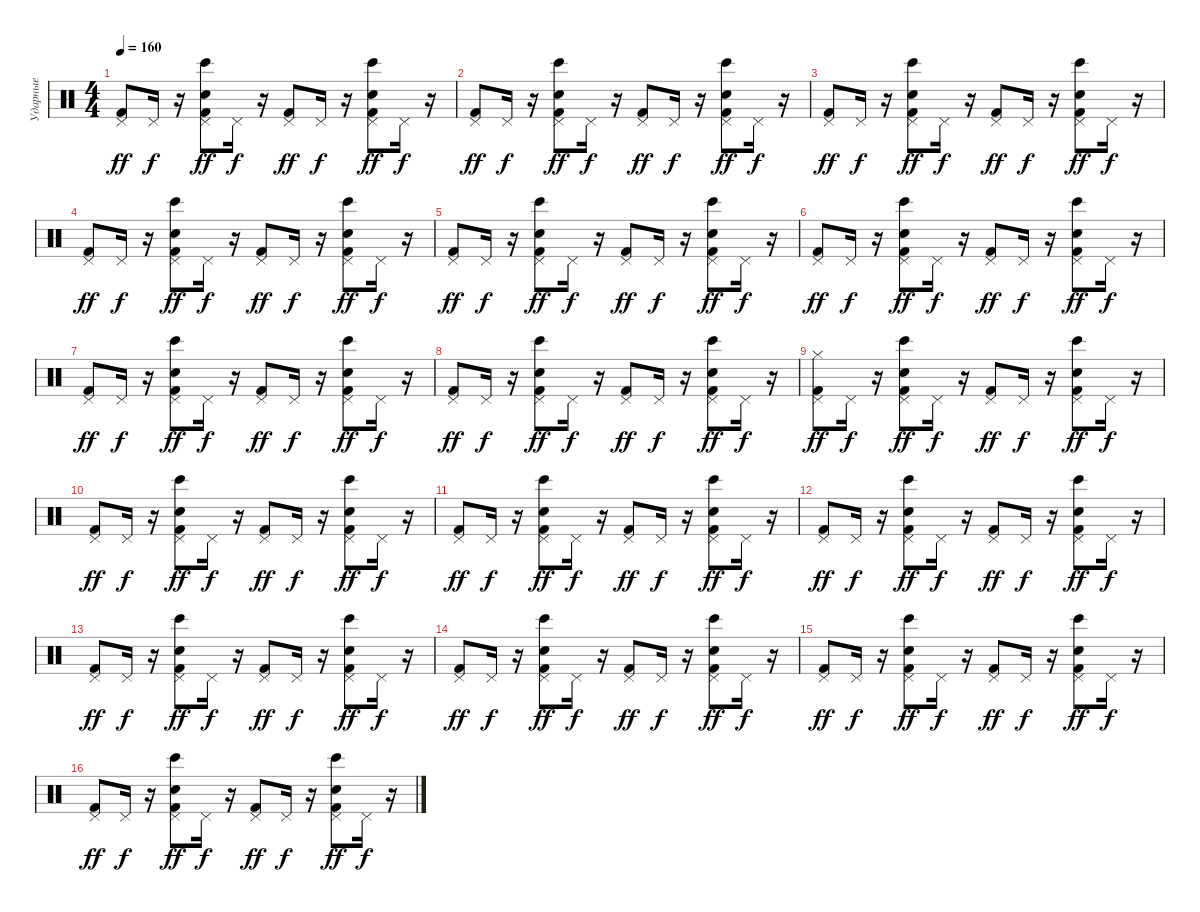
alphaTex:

\track ("Ударные" "Ударные") {instrument percussion}
\staff {score}
\articulation defaults
\ts (4 4)
\tempo 160
\clef neutral
\ks c
("Kick (hit) 2" "Pedal Hi-Hat (hit)").8{dy ff} "Pedal Hi-Hat (hit)".16{dy f} r.16 ("Kick (hit) 2" "Snare (hit) 2" "Pedal Hi-Hat (hit)" "Bongo High (hit)").8{dy ff} "Pedal Hi-Hat (hit)".16{dy f} r.16 ("Kick (hit) 2" "Pedal Hi-Hat (hit)").8{dy ff} "Pedal Hi-Hat (hit)".16{dy f} r.16 ("Snare (hit) 2" "Kick (hit) 2" "Pedal Hi-Hat (hit)" "Bongo High (hit)").8{dy ff} "Pedal Hi-Hat (hit)".16{dy f} r.16 |
("Kick (hit) 2" "Pedal Hi-Hat (hit)").8{dy ff} "Pedal Hi-Hat (hit)".16{dy f} r.16 ("Kick (hit) 2" "Snare (hit) 2" "Pedal Hi-Hat (hit)" "Bongo High (hit)").8{dy ff} "Pedal Hi-Hat (hit)".16{dy f} r.16 ("Kick (hit) 2" "Pedal Hi-Hat (hit)").8{dy ff} "Pedal Hi-Hat (hit)".16{dy f} r.16 ("Snare (hit) 2" "Kick (hit) 2" "Pedal Hi-Hat (hit)" "Bongo High (hit)").8{dy ff} "Pedal Hi-Hat (hit)".16{dy f} r.16 |
("Kick (hit) 2" "Pedal Hi-Hat (hit)").8{dy ff} "Pedal Hi-Hat (hit)".16{dy f} r.16 ("Kick (hit) 2" "Snare (hit) 2" "Pedal Hi-Hat (hit)" "Bongo High (hit)").8{dy ff} "Pedal Hi-Hat (hit)".16{dy f} r.16 ("Kick (hit) 2" "Pedal Hi-Hat (hit)").8{dy ff} "Pedal Hi-Hat (hit)".16{dy f} r.16 ("Snare (hit) 2" "Kick (hit) 2" "Pedal Hi-Hat (hit)" "Bongo High (hit)").8{dy ff} "Pedal Hi-Hat (hit)".16{dy f} r.16 |
("Kick (hit) 2" "Pedal Hi-Hat (hit)").8{dy ff} "Pedal Hi-Hat (hit)".16{dy f} r.16 ("Snare (hit) 2" "Kick (hit) 2" "Pedal Hi-Hat (hit)" "Bongo High (hit)").8{dy ff} "Pedal Hi-Hat (hit)".16{dy f} r.16 ("Kick (hit) 2" "Pedal Hi-Hat (hit)").8{dy ff} "Pedal Hi-Hat (hit)".16{dy f} r.16 ("Kick (hit) 2" "Snare (hit) 2" "Pedal Hi-Hat (hit)" "Bongo High (hit)").8{dy ff} "Pedal Hi-Hat (hit)".16{dy f} r.16 |
("Kick (hit) 2" "Pedal Hi-Hat (hit)").8{dy ff} "Pedal Hi-Hat (hit)".16{dy f} r.16 ("Kick (hit) 2" "Snare (hit) 2" "Pedal Hi-Hat (hit)" "Bongo High (hit)").8{dy ff} "Pedal Hi-Hat (hit)".16{dy f} r.16 ("Kick (hit) 2" "Pedal Hi-Hat (hit)").8{dy ff} "Pedal Hi-Hat (hit)".16{dy f} r.16 ("Kick (hit) 2" "Snare (hit) 2" "Pedal Hi-Hat (hit)" "Bongo High (hit)").8{dy ff} "Pedal Hi-Hat (hit)".16{dy f} r.16 |
("Kick (hit) 2" "Pedal Hi-Hat (hit)").8{dy ff} "Pedal Hi-Hat (hit)".16{dy f} r.16 ("Kick (hit) 2" "Snare (hit) 2" "Pedal Hi-Hat (hit)" "Bongo High (hit)").8{dy ff} "Pedal Hi-Hat (hit)".16{dy f} r.16 ("Kick (hit) 2" "Pedal Hi-Hat (hit)").8{dy ff} "Pedal Hi-Hat (hit)".16{dy f} r.16 ("Snare (hit) 2" "Kick (hit) 2" "Pedal Hi-Hat (hit)" "Bongo High (hit)").8{dy ff} "Pedal Hi-Hat (hit)".16{dy f} r.16 |
("Kick (hit) 2" "Pedal Hi-Hat (hit)").8{dy ff} "Pedal Hi-Hat (hit)".16{dy f} r.16 ("Snare (hit) 2" "Kick (hit) 2" "Pedal Hi-Hat (hit)" "Bongo High (hit)").8{dy ff} "Pedal Hi-Hat (hit)".16{dy f} r.16 ("Kick (hit) 2" "Pedal Hi-Hat (hit)").8{dy ff} "Pedal Hi-Hat (hit)".16{dy f} r.16 ("Kick (hit) 2" "Snare (hit) 2" "Pedal Hi-Hat (hit)" "Bongo High (hit)").8{dy ff} "Pedal Hi-Hat (hit)".16{dy f} r.16 |
("Kick (hit) 2" "Pedal Hi-Hat (hit)").8{dy ff} "Pedal Hi-Hat (hit)".16{dy f} r.16 ("Kick (hit) 2" "Snare (hit) 2" "Pedal Hi-Hat (hit)" "Bongo High (hit)").8{dy ff} "Pedal Hi-Hat (hit)".16{dy f} r.16 ("Kick (hit) 2" "Pedal Hi-Hat (hit)").8{dy ff} "Pedal Hi-Hat (hit)".16{dy f} r.16 ("Kick (hit) 2" "Snare (hit) 2" "Pedal Hi-Hat (hit)" "Bongo High (hit)").8{dy ff} "Pedal Hi-Hat (hit)".16{dy f} r.16 |
("Kick (hit) 2" "Pedal Hi-Hat (hit)" "Hi-Hat (closed)").8{dy ff} "Pedal Hi-Hat (hit)".16{dy f} r.16 ("Kick (hit) 2" "Snare (hit) 2" "Pedal Hi-Hat (hit)" "Bongo High (hit)").8{dy ff} "Pedal Hi-Hat (hit)".16{dy f} r.16 ("Kick (hit) 2" "Pedal Hi-Hat (hit)").8{dy ff} "Pedal Hi-Hat (hit)".16{dy f} r.16 ("Snare (hit) 2" "Kick (hit) 2" "Pedal Hi-Hat (hit)" "Bongo High (hit)").8{dy ff} "Pedal Hi-Hat (hit)".16{dy f} r.16 |
("Kick (hit) 2" "Pedal Hi-Hat (hit)").8{dy ff} "Pedal Hi-Hat (hit)".16{dy f} r.16 ("Kick (hit) 2" "Snare (hit) 2" "Pedal Hi-Hat (hit)" "Bongo High (hit)").8{dy ff} "Pedal Hi-Hat (hit)".16{dy f} r.16 ("Kick (hit) 2" "Pedal Hi-Hat (hit)").8{dy ff} "Pedal Hi-Hat (hit)".16{dy f} r.16 ("Snare (hit) 2" "Kick (hit) 2" "Pedal Hi-Hat (hit)" "Bongo High (hit)").8{dy ff} "Pedal Hi-Hat (hit)".16{dy f} r.16 |
("Kick (hit) 2" "Pedal Hi-Hat (hit)").8{dy ff} "Pedal Hi-Hat (hit)".16{dy f} r.16 ("Kick (hit) 2" "Snare (hit) 2" "Pedal Hi-Hat (hit)" "Bongo High (hit)").8{dy ff} "Pedal Hi-Hat (hit)".16{dy f} r.16 ("Kick (hit) 2" "Pedal Hi-Hat (hit)").8{dy ff} "Pedal Hi-Hat (hit)".16{dy f} r.16 ("Snare (hit) 2" "Kick (hit) 2" "Pedal Hi-Hat (hit)" "Bongo High (hit)").8{dy ff} "Pedal Hi-Hat (hit)".16{dy f} r.16 |
("Kick (hit) 2" "Pedal Hi-Hat (hit)").8{dy ff} "Pedal Hi-Hat (hit)".16{dy f} r.16 ("Snare (hit) 2" "Kick (hit) 2" "Pedal Hi-Hat (hit)" "Bongo High (hit)").8{dy ff} "Pedal Hi-Hat (hit)".16{dy f} r.16 ("Kick (hit) 2" "Pedal Hi-Hat (hit)").8{dy ff} "Pedal Hi-Hat (hit)".16{dy f} r.16 ("Kick (hit) 2" "Snare (hit) 2" "Pedal Hi-Hat (hit)" "Bongo High (hit)").8{dy ff} "Pedal Hi-Hat (hit)".16{dy f} r.16 |
("Kick (hit) 2" "Pedal Hi-Hat (hit)").8{dy ff} "Pedal Hi-Hat (hit)".16{dy f} r.16 ("Kick (hit) 2" "Snare (hit) 2" "Pedal Hi-Hat (hit)" "Bongo High (hit)").8{dy ff} "Pedal Hi-Hat (hit)".16{dy f} r.16 ("Kick (hit) 2" "Pedal Hi-Hat (hit)").8{dy ff} "Pedal Hi-Hat (hit)".16{dy f} r.16 ("Kick (hit) 2" "Snare (hit) 2" "Pedal Hi-Hat (hit)" "Bongo High (hit)").8{dy ff} "Pedal Hi-Hat (hit)".16{dy f} r.16 |
("Kick (hit) 2" "Pedal Hi-Hat (hit)").8{dy ff} "Pedal Hi-Hat (hit)".16{dy f} r.16 ("Kick (hit) 2" "Snare (hit) 2" "Pedal Hi-Hat (hit)" "Bongo High (hit)").8{dy ff} "Pedal Hi-Hat (hit)".16{dy f} r.16 ("Kick (hit) 2" "Pedal Hi-Hat (hit)").8{dy ff} "Pedal Hi-Hat (hit)".16{dy f} r.16 ("Snare (hit) 2" "Kick (hit) 2" "Pedal Hi-Hat (hit)" "Bongo High (hit)").8{dy ff} "Pedal Hi-Hat (hit)".16{dy f} r.16 |
("Kick (hit) 2" "Pedal Hi-Hat (hit)").8{dy ff} "Pedal Hi-Hat (hit)".16{dy f} r.16 ("Snare (hit) 2" "Kick (hit) 2" "Pedal Hi-Hat (hit)" "Bongo High (hit)").8{dy ff} "Pedal Hi-Hat (hit)".16{dy f} r.16 ("Kick (hit) 2" "Pedal Hi-Hat (hit)").8{dy ff} "Pedal Hi-Hat (hit)".16{dy f} r.16 ("Kick (hit) 2" "Snare (hit) 2" "Pedal Hi-Hat (hit)" "Bongo High (hit)").8{dy ff} "Pedal Hi-Hat (hit)".16{dy f} r.16 |
("Kick (hit) 2" "Pedal Hi-Hat (hit)").8{dy ff} "Pedal Hi-Hat (hit)".16{dy f} r.16 ("Kick (hit) 2" "Snare (hit) 2" "Pedal Hi-Hat (hit)" "Bongo High (hit)").8{dy ff} "Pedal Hi-Hat (hit)".16{dy f} r.16 ("Kick (hit) 2" "Pedal Hi-Hat (hit)").8{dy ff} "Pedal Hi-Hat (hit)".16{dy f} r.16 ("Kick (hit) 2" "Snare (hit) 2" "Pedal Hi-Hat (hit)" "Bongo High (hit)").8{dy ff} "Pedal Hi-Hat (hit)".16{dy f} r.16
